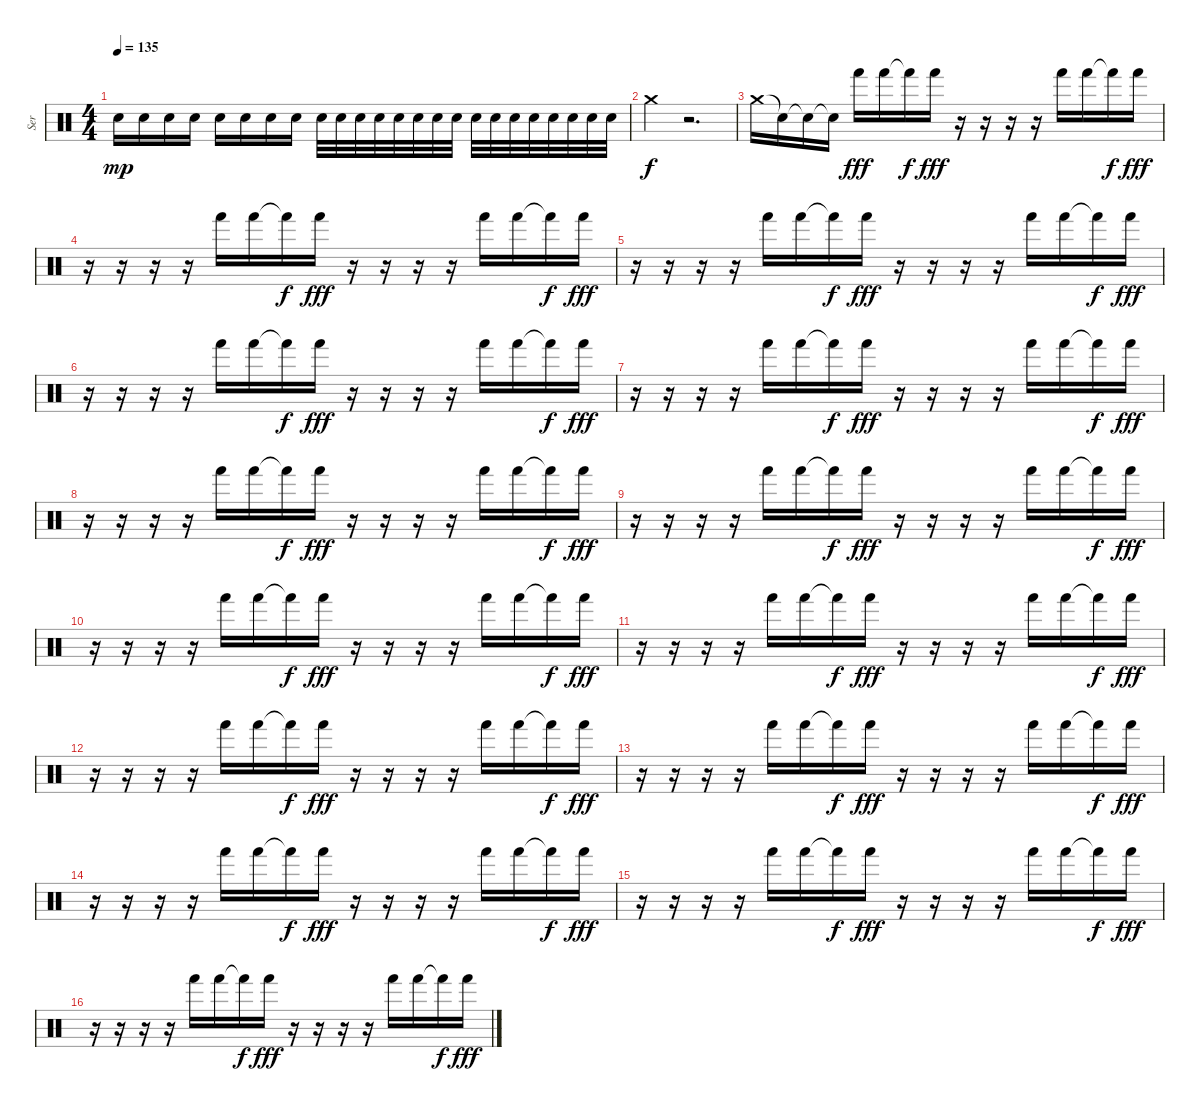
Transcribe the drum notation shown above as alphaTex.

\track ("Ser" "Ser") {instrument percussion}
\staff {score}
\articulation defaults
\ts (4 4)
\tempo 135
\clef neutral
\ks c "Electric Snare (hit)".16{dy mp} "Electric Snare (hit)".16 "Electric Snare (hit)".16 "Electric Snare (hit)".16 "Electric Snare (hit)".16 "Electric Snare (hit)".16 "Electric Snare (hit)".16 "Electric Snare (hit)".16 "Electric Snare (hit)".32 "Electric Snare (hit)".32 "Electric Snare (hit)".32 "Electric Snare (hit)".32 "Electric Snare (hit)".32 "Electric Snare (hit)".32 "Electric Snare (hit)".32 "Electric Snare (hit)".32 "Electric Snare (hit)".32 "Electric Snare (hit)".32 "Electric Snare (hit)".32 "Electric Snare (hit)".32 "Electric Snare (hit)".32 "Electric Snare (hit)".32 "Electric Snare (hit)".32 "Electric Snare (hit)".32
|
"Crash medium (hit)".4{dy f} r.2{d} |
"Crash medium (hit)".16 "Snare (hit)"{t}.16 "Snare (hit)"{t}.16 "Snare (hit)"{t}.16 "Hand (hit)".16{dy fff} "Hand (hit)".16 "Hand (hit)"{t}.16{dy f} "Hand (hit)".16{dy fff} r.16 r.16 r.16 r.16 "Hand (hit)".16 "Hand (hit)".16 "Hand (hit)"{t}.16{dy f} "Hand (hit)".16{dy fff} |
r.16 r.16 r.16 r.16 "Hand (hit)".16 "Hand (hit)".16 "Hand (hit)"{t}.16{dy f} "Hand (hit)".16{dy fff} r.16 r.16 r.16 r.16 "Hand (hit)".16 "Hand (hit)".16 "Hand (hit)"{t}.16{dy f} "Hand (hit)".16{dy fff} |
r.16 r.16 r.16 r.16 "Hand (hit)".16 "Hand (hit)".16 "Hand (hit)"{t}.16{dy f} "Hand (hit)".16{dy fff} r.16 r.16 r.16 r.16 "Hand (hit)".16 "Hand (hit)".16 "Hand (hit)"{t}.16{dy f} "Hand (hit)".16{dy fff} |
r.16 r.16 r.16 r.16 "Hand (hit)".16 "Hand (hit)".16 "Hand (hit)"{t}.16{dy f} "Hand (hit)".16{dy fff} r.16 r.16 r.16 r.16 "Hand (hit)".16 "Hand (hit)".16 "Hand (hit)"{t}.16{dy f} "Hand (hit)".16{dy fff} |
r.16 r.16 r.16 r.16 "Hand (hit)".16 "Hand (hit)".16 "Hand (hit)"{t}.16{dy f} "Hand (hit)".16{dy fff} r.16 r.16 r.16 r.16 "Hand (hit)".16 "Hand (hit)".16 "Hand (hit)"{t}.16{dy f} "Hand (hit)".16{dy fff} |
r.16 r.16 r.16 r.16 "Hand (hit)".16 "Hand (hit)".16 "Hand (hit)"{t}.16{dy f} "Hand (hit)".16{dy fff} r.16 r.16 r.16 r.16 "Hand (hit)".16 "Hand (hit)".16 "Hand (hit)"{t}.16{dy f} "Hand (hit)".16{dy fff} |
r.16 r.16 r.16 r.16 "Hand (hit)".16 "Hand (hit)".16 "Hand (hit)"{t}.16{dy f} "Hand (hit)".16{dy fff} r.16 r.16 r.16 r.16 "Hand (hit)".16 "Hand (hit)".16 "Hand (hit)"{t}.16{dy f} "Hand (hit)".16{dy fff} |
r.16 r.16 r.16 r.16 "Hand (hit)".16 "Hand (hit)".16 "Hand (hit)"{t}.16{dy f} "Hand (hit)".16{dy fff} r.16 r.16 r.16 r.16 "Hand (hit)".16 "Hand (hit)".16 "Hand (hit)"{t}.16{dy f} "Hand (hit)".16{dy fff} |
r.16 r.16 r.16 r.16 "Hand (hit)".16 "Hand (hit)".16 "Hand (hit)"{t}.16{dy f} "Hand (hit)".16{dy fff} r.16 r.16 r.16 r.16 "Hand (hit)".16 "Hand (hit)".16 "Hand (hit)"{t}.16{dy f} "Hand (hit)".16{dy fff} |
r.16 r.16 r.16 r.16 "Hand (hit)".16 "Hand (hit)".16 "Hand (hit)"{t}.16{dy f} "Hand (hit)".16{dy fff} r.16 r.16 r.16 r.16 "Hand (hit)".16 "Hand (hit)".16 "Hand (hit)"{t}.16{dy f} "Hand (hit)".16{dy fff} |
r.16 r.16 r.16 r.16 "Hand (hit)".16 "Hand (hit)".16 "Hand (hit)"{t}.16{dy f} "Hand (hit)".16{dy fff} r.16 r.16 r.16 r.16 "Hand (hit)".16 "Hand (hit)".16 "Hand (hit)"{t}.16{dy f} "Hand (hit)".16{dy fff} |
r.16 r.16 r.16 r.16 "Hand (hit)".16 "Hand (hit)".16 "Hand (hit)"{t}.16{dy f} "Hand (hit)".16{dy fff} r.16 r.16 r.16 r.16 "Hand (hit)".16 "Hand (hit)".16 "Hand (hit)"{t}.16{dy f} "Hand (hit)".16{dy fff} |
r.16 r.16 r.16 r.16 "Hand (hit)".16 "Hand (hit)".16 "Hand (hit)"{t}.16{dy f} "Hand (hit)".16{dy fff} r.16 r.16 r.16 r.16 "Hand (hit)".16 "Hand (hit)".16 "Hand (hit)"{t}.16{dy f} "Hand (hit)".16{dy fff} |
r.16 r.16 r.16 r.16 "Hand (hit)".16 "Hand (hit)".16 "Hand (hit)"{t}.16{dy f} "Hand (hit)".16{dy fff} r.16 r.16 r.16 r.16 "Hand (hit)".16 "Hand (hit)".16 "Hand (hit)"{t}.16{dy f} "Hand (hit)".16{dy fff}
